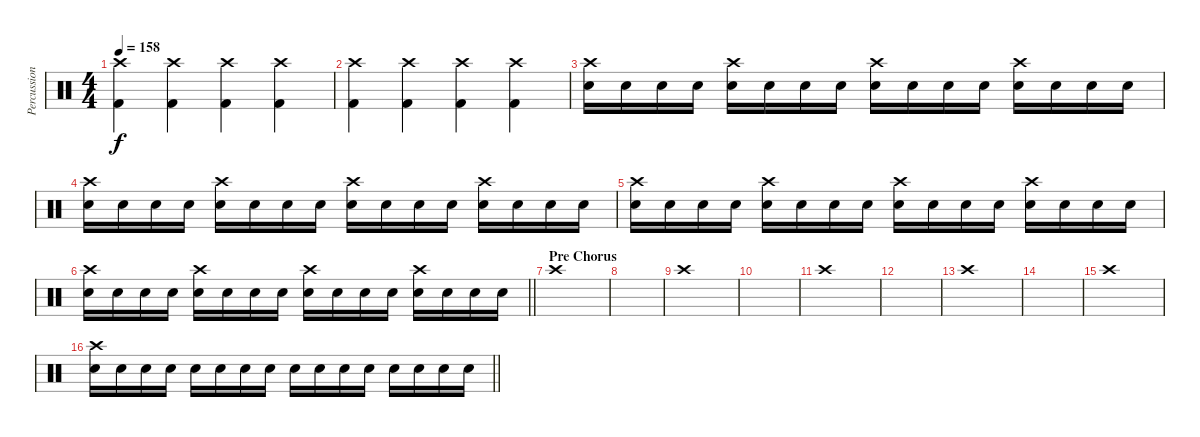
\track ("Percussion" "Percussion") {instrument percussion}
\staff {score}
\articulation defaults
\ts (4 4)
\tempo 158
\clef neutral
\ks c
("Crash high (hit)" "Kick (hit) 2").4{dy f} ("Crash high (hit)" "Kick (hit) 2").4 ("Crash high (hit)" "Kick (hit) 2").4 ("Crash high (hit)" "Kick (hit) 2").4 |
("Crash high (hit)" "Kick (hit) 2").4 ("Crash high (hit)" "Kick (hit) 2").4 ("Crash high (hit)" "Kick (hit) 2").4 ("Crash high (hit)" "Kick (hit) 2").4 |
("Crash high (hit)" "Electric Snare (hit)").16{volume 16} "Electric Snare (hit)".16 "Electric Snare (hit)".16 "Electric Snare (hit)".16 ("Crash high (hit)" "Electric Snare (hit)").16 "Electric Snare (hit)".16 "Electric Snare (hit)".16 "Electric Snare (hit)".16 ("Crash high (hit)" "Electric Snare (hit)").16 "Electric Snare (hit)".16 "Electric Snare (hit)".16 "Electric Snare (hit)".16 ("Crash high (hit)" "Electric Snare (hit)").16 "Electric Snare (hit)".16 "Electric Snare (hit)".16 "Electric Snare (hit)".16 |
("Crash high (hit)" "Electric Snare (hit)").16 "Electric Snare (hit)".16 "Electric Snare (hit)".16 "Electric Snare (hit)".16 ("Crash high (hit)" "Electric Snare (hit)").16 "Electric Snare (hit)".16 "Electric Snare (hit)".16 "Electric Snare (hit)".16 ("Crash high (hit)" "Electric Snare (hit)").16 "Electric Snare (hit)".16 "Electric Snare (hit)".16 "Electric Snare (hit)".16 ("Crash high (hit)" "Electric Snare (hit)").16 "Electric Snare (hit)".16 "Electric Snare (hit)".16 "Electric Snare (hit)".16 |
("Crash high (hit)" "Electric Snare (hit)").16 "Electric Snare (hit)".16 "Electric Snare (hit)".16 "Electric Snare (hit)".16 ("Crash high (hit)" "Electric Snare (hit)").16 "Electric Snare (hit)".16 "Electric Snare (hit)".16 "Electric Snare (hit)".16 ("Crash high (hit)" "Electric Snare (hit)").16 "Electric Snare (hit)".16 "Electric Snare (hit)".16 "Electric Snare (hit)".16 ("Crash high (hit)" "Electric Snare (hit)").16 "Electric Snare (hit)".16 "Electric Snare (hit)".16 "Electric Snare (hit)".16 |
\barLineRight lightlight
("Crash high (hit)" "Electric Snare (hit)").16 "Electric Snare (hit)".16 "Electric Snare (hit)".16 "Electric Snare (hit)".16 ("Crash high (hit)" "Electric Snare (hit)").16 "Electric Snare (hit)".16 "Electric Snare (hit)".16 "Electric Snare (hit)".16 ("Crash high (hit)" "Electric Snare (hit)").16 "Electric Snare (hit)".16 "Electric Snare (hit)".16 "Electric Snare (hit)".16 ("Crash high (hit)" "Electric Snare (hit)").16 "Electric Snare (hit)".16 "Electric Snare (hit)".16 "Electric Snare (hit)".16 |
\section ("" "Pre Chorus")
"Crash high (hit)".1 |
|
"Crash high (hit)".1 |
|
"Crash high (hit)".1 |
|
"Crash high (hit)".1 |
|
"Crash high (hit)".1 |
\barLineRight lightlight
("Crash high (hit)" "Electric Snare (hit)").16 "Electric Snare (hit)".16 "Electric Snare (hit)".16 "Electric Snare (hit)".16 "Electric Snare (hit)".16 "Electric Snare (hit)".16 "Electric Snare (hit)".16 "Electric Snare (hit)".16 "Electric Snare (hit)".16 "Electric Snare (hit)".16 "Electric Snare (hit)".16 "Electric Snare (hit)".16 "Electric Snare (hit)".16 "Electric Snare (hit)".16 "Electric Snare (hit)".16 "Electric Snare (hit)".16
